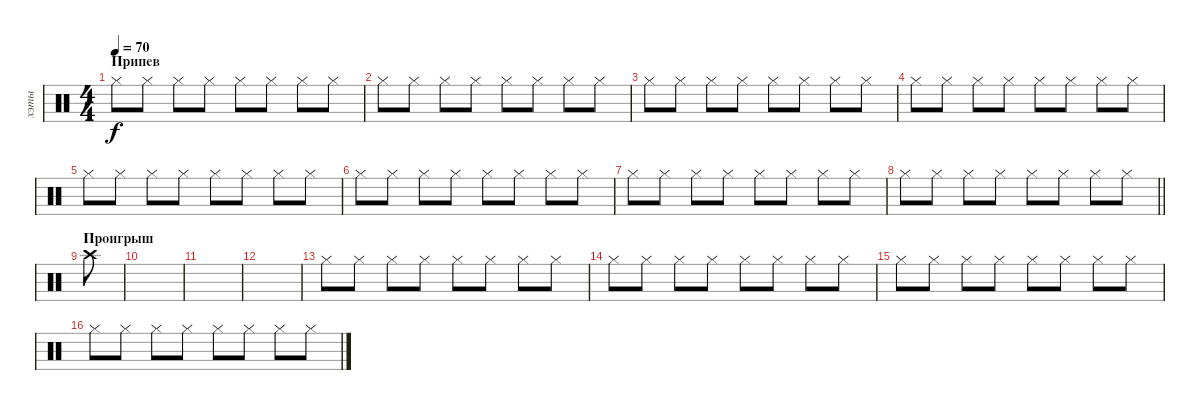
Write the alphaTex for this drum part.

\track ("хэты" "хэты") {instrument percussion}
\staff {score}
\articulation defaults
\ts (4 4)
\section ("" "Припев")
\tempo 70
\clef neutral
\ks c "Hi-Hat (closed)".8{dy f} "Hi-Hat (closed)".8 "Hi-Hat (closed)".8 "Hi-Hat (closed)".8 "Hi-Hat (closed)".8 "Hi-Hat (closed)".8 "Hi-Hat (closed)".8 "Hi-Hat (closed)".8
|
"Hi-Hat (closed)".8 "Hi-Hat (closed)".8 "Hi-Hat (closed)".8 "Hi-Hat (closed)".8 "Hi-Hat (closed)".8 "Hi-Hat (closed)".8 "Hi-Hat (closed)".8 "Hi-Hat (closed)".8 |
"Hi-Hat (closed)".8 "Hi-Hat (closed)".8 "Hi-Hat (closed)".8 "Hi-Hat (closed)".8 "Hi-Hat (closed)".8 "Hi-Hat (closed)".8 "Hi-Hat (closed)".8 "Hi-Hat (closed)".8 |
"Hi-Hat (closed)".8 "Hi-Hat (closed)".8 "Hi-Hat (closed)".8 "Hi-Hat (closed)".8 "Hi-Hat (closed)".8 "Hi-Hat (closed)".8 "Hi-Hat (closed)".8 "Hi-Hat (closed)".8 |
"Hi-Hat (closed)".8 "Hi-Hat (closed)".8 "Hi-Hat (closed)".8 "Hi-Hat (closed)".8 "Hi-Hat (closed)".8 "Hi-Hat (closed)".8 "Hi-Hat (closed)".8 "Hi-Hat (closed)".8 |
"Hi-Hat (closed)".8 "Hi-Hat (closed)".8 "Hi-Hat (closed)".8 "Hi-Hat (closed)".8 "Hi-Hat (closed)".8 "Hi-Hat (closed)".8 "Hi-Hat (closed)".8 "Hi-Hat (closed)".8 |
"Hi-Hat (closed)".8 "Hi-Hat (closed)".8 "Hi-Hat (closed)".8 "Hi-Hat (closed)".8 "Hi-Hat (closed)".8 "Hi-Hat (closed)".8 "Hi-Hat (closed)".8 "Hi-Hat (closed)".8 |
\barLineRight lightlight "Hi-Hat (closed)".8 "Hi-Hat (closed)".8 "Hi-Hat (closed)".8 "Hi-Hat (closed)".8 "Hi-Hat (closed)".8 "Hi-Hat (closed)".8 "Hi-Hat (closed)".8 "Hi-Hat (closed)".8
|
\section ("" "Проигрыш")
"Crash high (hit)".8 |
|
|
|
"Hi-Hat (closed)".8 "Hi-Hat (closed)".8 "Hi-Hat (closed)".8 "Hi-Hat (closed)".8 "Hi-Hat (closed)".8 "Hi-Hat (closed)".8 "Hi-Hat (closed)".8 "Hi-Hat (closed)".8 |
"Hi-Hat (closed)".8 "Hi-Hat (closed)".8 "Hi-Hat (closed)".8 "Hi-Hat (closed)".8 "Hi-Hat (closed)".8 "Hi-Hat (closed)".8 "Hi-Hat (closed)".8 "Hi-Hat (closed)".8 |
"Hi-Hat (closed)".8 "Hi-Hat (closed)".8 "Hi-Hat (closed)".8 "Hi-Hat (closed)".8 "Hi-Hat (closed)".8 "Hi-Hat (closed)".8 "Hi-Hat (closed)".8 "Hi-Hat (closed)".8 |
"Hi-Hat (closed)".8 "Hi-Hat (closed)".8 "Hi-Hat (closed)".8 "Hi-Hat (closed)".8 "Hi-Hat (closed)".8 "Hi-Hat (closed)".8 "Hi-Hat (closed)".8 "Hi-Hat (closed)".8
